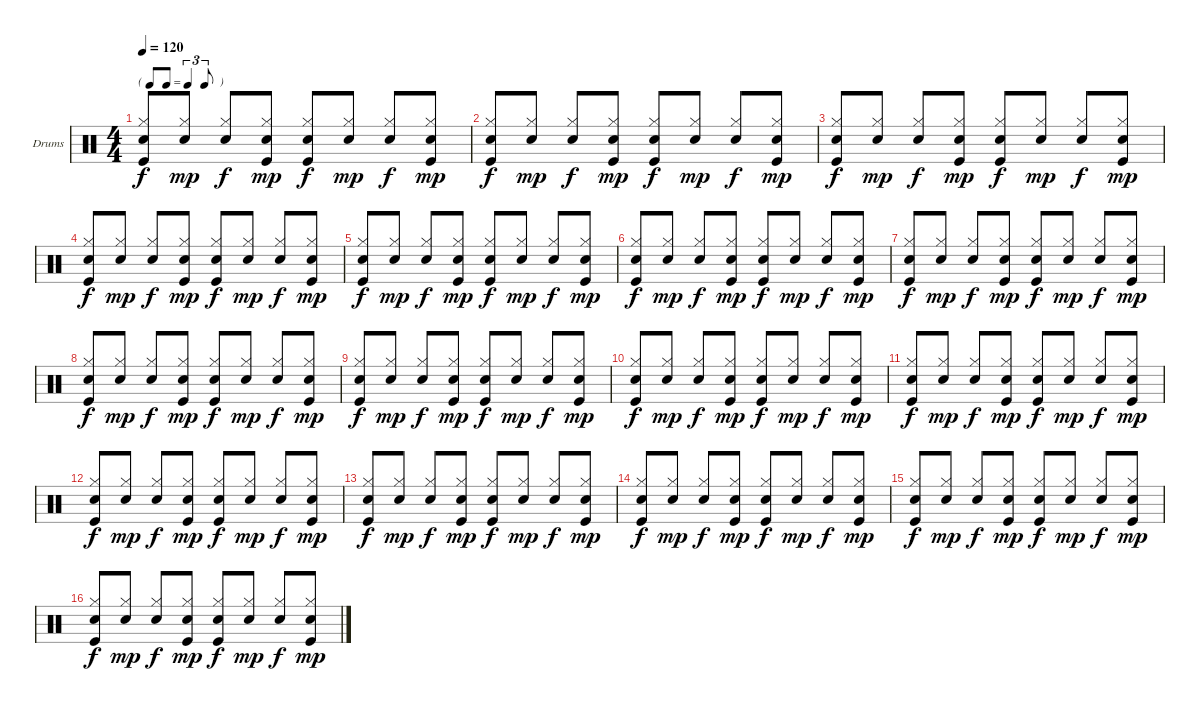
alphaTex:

\defaultSystemsLayout 4
\bracketExtendMode groupsimilarinstruments
\firstSystemTrackNameOrientation horizontal
\otherSystemsTrackNameOrientation horizontal
\track ("Drumkit" "Drums") {instrument percussion}
\staff {score}
\articulation defaults
\ts (4 4)
\tf triplet8th
\tempo 120
\clef neutral
\scale
0.333333
\ks c
("Hi-Hat (closed)" "Kick (hit)" "Snare (hit) 2").8{dy f beam invert} ("Hi-Hat (closed)" "Snare (hit) 2").8{dy mp} ("Hi-Hat (closed)" "Snare (hit) 2").8{dy f beam invert} ("Hi-Hat (closed)" "Kick (hit)" "Snare (hit) 2").8{dy mp} ("Hi-Hat (closed)" "Kick (hit)" "Snare (hit) 2").8{dy f beam invert} ("Hi-Hat (closed)" "Snare (hit) 2").8{dy mp} ("Hi-Hat (closed)" "Snare (hit) 2").8{dy f beam invert} ("Hi-Hat (closed)" "Kick (hit)" "Snare (hit) 2").8{dy mp} |
\scale
0.333333 ("Hi-Hat (closed)" "Kick (hit)" "Snare (hit) 2").8{dy f beam invert} ("Hi-Hat (closed)" "Snare (hit) 2").8{dy mp} ("Hi-Hat (closed)" "Snare (hit) 2").8{dy f beam invert} ("Hi-Hat (closed)" "Kick (hit)" "Snare (hit) 2").8{dy mp} ("Hi-Hat (closed)" "Kick (hit)" "Snare (hit) 2").8{dy f beam invert} ("Hi-Hat (closed)" "Snare (hit) 2").8{dy mp} ("Hi-Hat (closed)" "Snare (hit) 2").8{dy f beam invert} ("Hi-Hat (closed)" "Kick (hit)" "Snare (hit) 2").8{dy mp} |
\scale
0.333333 ("Hi-Hat (closed)" "Kick (hit)" "Snare (hit) 2").8{dy f beam invert} ("Hi-Hat (closed)" "Snare (hit) 2").8{dy mp} ("Hi-Hat (closed)" "Snare (hit) 2").8{dy f beam invert} ("Hi-Hat (closed)" "Kick (hit)" "Snare (hit) 2").8{dy mp} ("Hi-Hat (closed)" "Kick (hit)" "Snare (hit) 2").8{dy f beam invert} ("Hi-Hat (closed)" "Snare (hit) 2").8{dy mp} ("Hi-Hat (closed)" "Snare (hit) 2").8{dy f beam invert} ("Hi-Hat (closed)" "Kick (hit)" "Snare (hit) 2").8{dy mp} |
\scale
0.333333 ("Hi-Hat (closed)" "Kick (hit)" "Snare (hit) 2").8{dy f beam invert} ("Hi-Hat (closed)" "Snare (hit) 2").8{dy mp} ("Hi-Hat (closed)" "Snare (hit) 2").8{dy f beam invert} ("Hi-Hat (closed)" "Kick (hit)" "Snare (hit) 2").8{dy mp} ("Hi-Hat (closed)" "Kick (hit)" "Snare (hit) 2").8{dy f beam invert} ("Hi-Hat (closed)" "Snare (hit) 2").8{dy mp} ("Hi-Hat (closed)" "Snare (hit) 2").8{dy f beam invert} ("Hi-Hat (closed)" "Kick (hit)" "Snare (hit) 2").8{dy mp} |
\scale
0.333333 ("Hi-Hat (closed)" "Kick (hit)" "Snare (hit) 2").8{dy f beam invert} ("Hi-Hat (closed)" "Snare (hit) 2").8{dy mp} ("Hi-Hat (closed)" "Snare (hit) 2").8{dy f beam invert} ("Hi-Hat (closed)" "Kick (hit)" "Snare (hit) 2").8{dy mp} ("Hi-Hat (closed)" "Kick (hit)" "Snare (hit) 2").8{dy f beam invert} ("Hi-Hat (closed)" "Snare (hit) 2").8{dy mp} ("Hi-Hat (closed)" "Snare (hit) 2").8{dy f beam invert} ("Hi-Hat (closed)" "Kick (hit)" "Snare (hit) 2").8{dy mp} |
\scale
0.333333 ("Hi-Hat (closed)" "Kick (hit)" "Snare (hit) 2").8{dy f beam invert} ("Hi-Hat (closed)" "Snare (hit) 2").8{dy mp} ("Hi-Hat (closed)" "Snare (hit) 2").8{dy f beam invert} ("Hi-Hat (closed)" "Kick (hit)" "Snare (hit) 2").8{dy mp} ("Hi-Hat (closed)" "Kick (hit)" "Snare (hit) 2").8{dy f beam invert} ("Hi-Hat (closed)" "Snare (hit) 2").8{dy mp} ("Hi-Hat (closed)" "Snare (hit) 2").8{dy f beam invert} ("Hi-Hat (closed)" "Kick (hit)" "Snare (hit) 2").8{dy mp} |
\scale
0.333333 ("Hi-Hat (closed)" "Kick (hit)" "Snare (hit) 2").8{dy f beam invert} ("Hi-Hat (closed)" "Snare (hit) 2").8{dy mp} ("Hi-Hat (closed)" "Snare (hit) 2").8{dy f beam invert} ("Hi-Hat (closed)" "Kick (hit)" "Snare (hit) 2").8{dy mp} ("Hi-Hat (closed)" "Kick (hit)" "Snare (hit) 2").8{dy f beam invert} ("Hi-Hat (closed)" "Snare (hit) 2").8{dy mp} ("Hi-Hat (closed)" "Snare (hit) 2").8{dy f beam invert} ("Hi-Hat (closed)" "Kick (hit)" "Snare (hit) 2").8{dy mp} |
\scale
0.333333 ("Hi-Hat (closed)" "Kick (hit)" "Snare (hit) 2").8{dy f beam invert} ("Hi-Hat (closed)" "Snare (hit) 2").8{dy mp} ("Hi-Hat (closed)" "Snare (hit) 2").8{dy f beam invert} ("Hi-Hat (closed)" "Kick (hit)" "Snare (hit) 2").8{dy mp} ("Hi-Hat (closed)" "Kick (hit)" "Snare (hit) 2").8{dy f beam invert} ("Hi-Hat (closed)" "Snare (hit) 2").8{dy mp} ("Hi-Hat (closed)" "Snare (hit) 2").8{dy f beam invert} ("Hi-Hat (closed)" "Kick (hit)" "Snare (hit) 2").8{dy mp} |
("Hi-Hat (closed)" "Kick (hit)" "Snare (hit) 2").8{dy f beam invert} ("Hi-Hat (closed)" "Snare (hit) 2").8{dy mp} ("Hi-Hat (closed)" "Snare (hit) 2").8{dy f beam invert} ("Hi-Hat (closed)" "Kick (hit)" "Snare (hit) 2").8{dy mp} ("Hi-Hat (closed)" "Kick (hit)" "Snare (hit) 2").8{dy f beam invert} ("Hi-Hat (closed)" "Snare (hit) 2").8{dy mp} ("Hi-Hat (closed)" "Snare (hit) 2").8{dy f beam invert} ("Hi-Hat (closed)" "Kick (hit)" "Snare (hit) 2").8{dy mp} |
("Hi-Hat (closed)" "Kick (hit)" "Snare (hit) 2").8{dy f beam invert} ("Hi-Hat (closed)" "Snare (hit) 2").8{dy mp} ("Hi-Hat (closed)" "Snare (hit) 2").8{dy f beam invert} ("Hi-Hat (closed)" "Kick (hit)" "Snare (hit) 2").8{dy mp} ("Hi-Hat (closed)" "Kick (hit)" "Snare (hit) 2").8{dy f beam invert} ("Hi-Hat (closed)" "Snare (hit) 2").8{dy mp} ("Hi-Hat (closed)" "Snare (hit) 2").8{dy f beam invert} ("Hi-Hat (closed)" "Kick (hit)" "Snare (hit) 2").8{dy mp} |
("Hi-Hat (closed)" "Kick (hit)" "Snare (hit) 2").8{dy f beam invert} ("Hi-Hat (closed)" "Snare (hit) 2").8{dy mp} ("Hi-Hat (closed)" "Snare (hit) 2").8{dy f beam invert} ("Hi-Hat (closed)" "Kick (hit)" "Snare (hit) 2").8{dy mp} ("Hi-Hat (closed)" "Kick (hit)" "Snare (hit) 2").8{dy f beam invert} ("Hi-Hat (closed)" "Snare (hit) 2").8{dy mp} ("Hi-Hat (closed)" "Snare (hit) 2").8{dy f beam invert} ("Hi-Hat (closed)" "Kick (hit)" "Snare (hit) 2").8{dy mp} |
("Hi-Hat (closed)" "Kick (hit)" "Snare (hit) 2").8{dy f beam invert} ("Hi-Hat (closed)" "Snare (hit) 2").8{dy mp} ("Hi-Hat (closed)" "Snare (hit) 2").8{dy f beam invert} ("Hi-Hat (closed)" "Kick (hit)" "Snare (hit) 2").8{dy mp} ("Hi-Hat (closed)" "Kick (hit)" "Snare (hit) 2").8{dy f beam invert} ("Hi-Hat (closed)" "Snare (hit) 2").8{dy mp} ("Hi-Hat (closed)" "Snare (hit) 2").8{dy f beam invert} ("Hi-Hat (closed)" "Kick (hit)" "Snare (hit) 2").8{dy mp} |
("Hi-Hat (closed)" "Kick (hit)" "Snare (hit) 2").8{dy f beam invert} ("Hi-Hat (closed)" "Snare (hit) 2").8{dy mp} ("Hi-Hat (closed)" "Snare (hit) 2").8{dy f beam invert} ("Hi-Hat (closed)" "Kick (hit)" "Snare (hit) 2").8{dy mp} ("Hi-Hat (closed)" "Kick (hit)" "Snare (hit) 2").8{dy f beam invert} ("Hi-Hat (closed)" "Snare (hit) 2").8{dy mp} ("Hi-Hat (closed)" "Snare (hit) 2").8{dy f beam invert} ("Hi-Hat (closed)" "Kick (hit)" "Snare (hit) 2").8{dy mp} |
("Hi-Hat (closed)" "Kick (hit)" "Snare (hit) 2").8{dy f beam invert} ("Hi-Hat (closed)" "Snare (hit) 2").8{dy mp} ("Hi-Hat (closed)" "Snare (hit) 2").8{dy f beam invert} ("Hi-Hat (closed)" "Kick (hit)" "Snare (hit) 2").8{dy mp} ("Hi-Hat (closed)" "Kick (hit)" "Snare (hit) 2").8{dy f beam invert} ("Hi-Hat (closed)" "Snare (hit) 2").8{dy mp} ("Hi-Hat (closed)" "Snare (hit) 2").8{dy f beam invert} ("Hi-Hat (closed)" "Kick (hit)" "Snare (hit) 2").8{dy mp} |
("Hi-Hat (closed)" "Kick (hit)" "Snare (hit) 2").8{dy f beam invert} ("Hi-Hat (closed)" "Snare (hit) 2").8{dy mp} ("Hi-Hat (closed)" "Snare (hit) 2").8{dy f beam invert} ("Hi-Hat (closed)" "Kick (hit)" "Snare (hit) 2").8{dy mp} ("Hi-Hat (closed)" "Kick (hit)" "Snare (hit) 2").8{dy f beam invert} ("Hi-Hat (closed)" "Snare (hit) 2").8{dy mp} ("Hi-Hat (closed)" "Snare (hit) 2").8{dy f beam invert} ("Hi-Hat (closed)" "Kick (hit)" "Snare (hit) 2").8{dy mp} |
("Hi-Hat (closed)" "Kick (hit)" "Snare (hit) 2").8{dy f beam invert} ("Hi-Hat (closed)" "Snare (hit) 2").8{dy mp} ("Hi-Hat (closed)" "Snare (hit) 2").8{dy f beam invert} ("Hi-Hat (closed)" "Kick (hit)" "Snare (hit) 2").8{dy mp} ("Hi-Hat (closed)" "Kick (hit)" "Snare (hit) 2").8{dy f beam invert} ("Hi-Hat (closed)" "Snare (hit) 2").8{dy mp} ("Hi-Hat (closed)" "Snare (hit) 2").8{dy f beam invert} ("Hi-Hat (closed)" "Kick (hit)" "Snare (hit) 2").8{dy mp}
